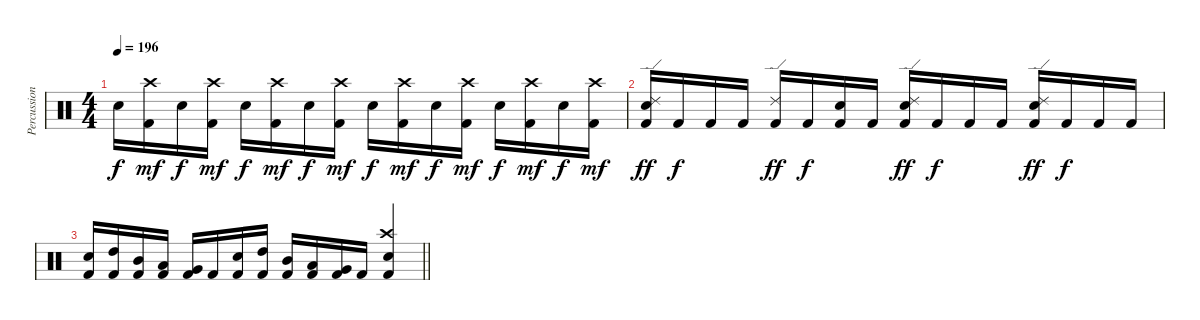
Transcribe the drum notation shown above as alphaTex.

\track ("Percussions" "Percussion") {instrument percussion}
\staff {score}
\articulation defaults
\ts (4 4)
\tempo 196
\clef neutral
\ks c "Electric Snare (hit)".16{dy f}
("Crash high (hit)" "Kick (hit) 2").16{dy mf} "Electric Snare (hit)".16{dy f} ("Crash high (hit)" "Kick (hit) 2").16{dy mf} "Electric Snare (hit)".16{dy f} ("Crash high (hit)" "Kick (hit) 2").16{dy mf} "Electric Snare (hit)".16{dy f} ("Crash high (hit)" "Kick (hit) 2").16{dy mf} "Electric Snare (hit)".16{dy f} ("Crash high (hit)" "Kick (hit) 2").16{dy mf} "Electric Snare (hit)".16{dy f} ("Crash high (hit)" "Kick (hit) 2").16{dy mf} "Electric Snare (hit)".16{dy f} ("Crash high (hit)" "Kick (hit) 2").16{dy mf} "Electric Snare (hit)".16{dy f} ("Crash high (hit)" "Kick (hit) 2").16{dy mf} |
("Ride (edge) 2" "Electric Snare (hit)" "Kick (hit) 2").16{dy ff} "Kick (hit) 2".16{dy f} "Kick (hit) 2".16 "Kick (hit) 2".16 ("Ride (edge) 2" "Kick (hit) 2").16{dy ff} "Kick (hit) 2".16{dy f} ("Electric Snare (hit)" "Kick (hit) 2").16 "Kick (hit) 2".16 ("Ride (edge) 2" "Electric Snare (hit)" "Kick (hit) 2").16{dy ff} "Kick (hit) 2".16{dy f} "Kick (hit) 2".16 "Kick (hit) 2".16 ("Ride (edge) 2" "Electric Snare (hit)" "Kick (hit) 2").16{dy ff} "Kick (hit) 2".16{dy f} "Kick (hit) 2".16 "Kick (hit) 2".16 |
\barLineRight lightlight
("Electric Snare (hit)" "Kick (hit) 2").16 ("High Tom (hit)" "Kick (hit) 2").16 ("Mid Tom (hit)" "Kick (hit) 2").16 ("Low Tom (hit)" "Kick (hit) 2").16 ("Very Low Tom (hit)" "Kick (hit) 2").16 "Kick (hit) 2".16 ("Electric Snare (hit)" "Kick (hit) 2").16 ("High Tom (hit)" "Kick (hit) 2").16 ("Mid Tom (hit)" "Kick (hit) 2").16 ("Low Tom (hit)" "Kick (hit) 2").16 ("Very Low Tom (hit)" "Kick (hit) 2").16 "Kick (hit) 2".16 ("Crash high (hit)" "Electric Snare (hit)" "Kick (hit) 2").4
